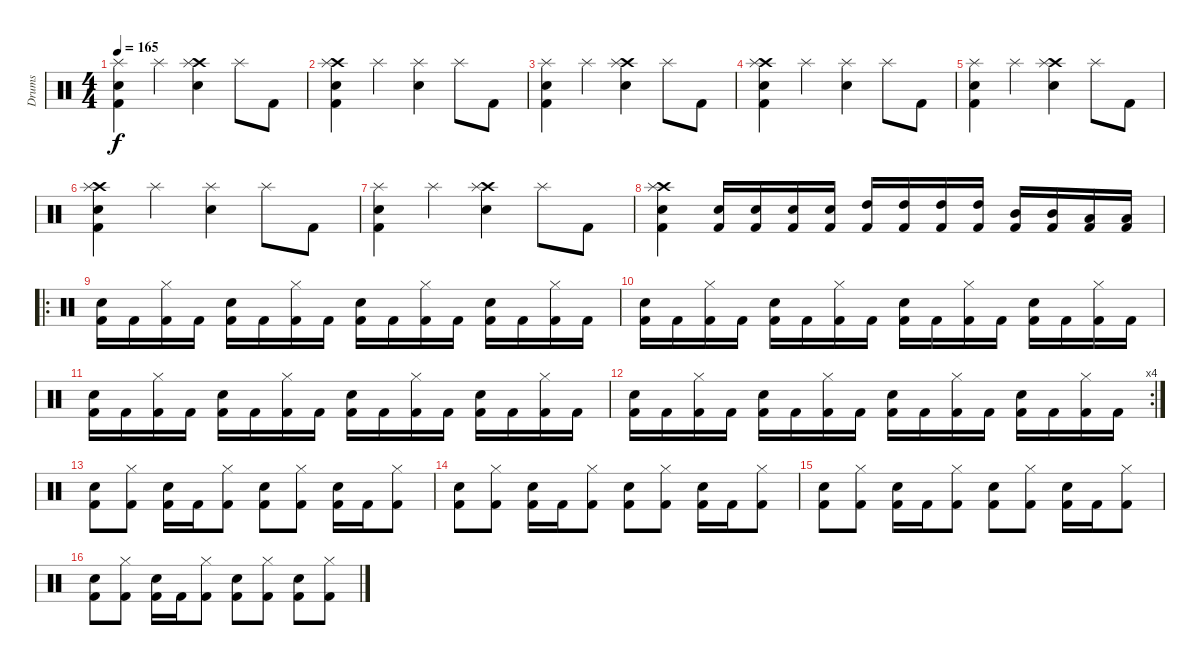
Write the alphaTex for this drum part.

\track ("Drums" "Drums") {instrument percussion}
\staff {score}
\articulation defaults
\ts (4 4)
\tempo 165
\clef neutral
\ks c
("Splash (hit)" "Snare (hit) 2" "Kick (hit) 2").4{dy f} "Splash (hit)".4 ("Crash high (hit)" "Splash (hit)" "Snare (hit) 2").4 "Splash (hit)".8 "Kick (hit) 2".8 |
("Crash high (hit)" "Splash (hit)" "Snare (hit) 2" "Kick (hit) 2").4 "Splash (hit)".4 ("Splash (hit)" "Snare (hit) 2").4 "Splash (hit)".8 "Kick (hit) 2".8 |
("Splash (hit)" "Snare (hit) 2" "Kick (hit) 2").4 "Splash (hit)".4 ("Crash high (hit)" "Splash (hit)" "Snare (hit) 2").4 "Splash (hit)".8 "Kick (hit) 2".8 |
("Crash high (hit)" "Splash (hit)" "Snare (hit) 2" "Kick (hit) 2").4 "Splash (hit)".4 ("Splash (hit)" "Snare (hit) 2").4 "Splash (hit)".8 "Kick (hit) 2".8 |
("Splash (hit)" "Snare (hit) 2" "Kick (hit) 2").4 "Splash (hit)".4 ("Crash high (hit)" "Splash (hit)" "Snare (hit) 2").4 "Splash (hit)".8 "Kick (hit) 2".8 |
("Crash high (hit)" "Splash (hit)" "Snare (hit) 2" "Kick (hit) 2").4 "Splash (hit)".4 ("Splash (hit)" "Snare (hit) 2").4 "Splash (hit)".8 "Kick (hit) 2".8 |
("Splash (hit)" "Snare (hit) 2" "Kick (hit) 2").4 "Splash (hit)".4 ("Crash high (hit)" "Splash (hit)" "Snare (hit) 2").4 "Splash (hit)".8 "Kick (hit) 2".8 |
("Crash high (hit)" "Splash (hit)" "Snare (hit) 2" "Kick (hit) 2").4 ("Snare (hit) 2" "Kick (hit) 2").16 ("Snare (hit) 2" "Kick (hit) 2").16 ("Snare (hit) 2" "Kick (hit) 2").16 ("Snare (hit) 2" "Kick (hit) 2").16 ("High Tom (hit)" "Kick (hit) 2").16 ("High Tom (hit)" "Kick (hit) 2").16 ("High Tom (hit)" "Kick (hit) 2").16 ("High Tom (hit)" "Kick (hit) 2").16 ("Mid Tom (hit)" "Kick (hit) 2").16 ("Mid Tom (hit)" "Kick (hit) 2").16 ("Low Tom (hit)" "Kick (hit) 2").16 ("Low Tom (hit)" "Kick (hit) 2").16 |
\ro
("Snare (hit) 2" "Kick (hit) 2").16 "Kick (hit) 2".16 ("Hi-Hat (closed)" "Kick (hit) 2").16 "Kick (hit) 2".16 ("Snare (hit) 2" "Kick (hit) 2").16 "Kick (hit) 2".16 ("Hi-Hat (closed)" "Kick (hit) 2").16 "Kick (hit) 2".16 ("Snare (hit) 2" "Kick (hit) 2").16 "Kick (hit) 2".16 ("Hi-Hat (closed)" "Kick (hit) 2").16 "Kick (hit) 2".16 ("Snare (hit) 2" "Kick (hit) 2").16 "Kick (hit) 2".16 ("Hi-Hat (closed)" "Kick (hit) 2").16 "Kick (hit) 2".16 |
("Snare (hit) 2" "Kick (hit) 2").16 "Kick (hit) 2".16 ("Hi-Hat (closed)" "Kick (hit) 2").16 "Kick (hit) 2".16 ("Snare (hit) 2" "Kick (hit) 2").16 "Kick (hit) 2".16 ("Hi-Hat (closed)" "Kick (hit) 2").16 "Kick (hit) 2".16 ("Snare (hit) 2" "Kick (hit) 2").16 "Kick (hit) 2".16 ("Hi-Hat (closed)" "Kick (hit) 2").16 "Kick (hit) 2".16 ("Snare (hit) 2" "Kick (hit) 2").16 "Kick (hit) 2".16 ("Hi-Hat (closed)" "Kick (hit) 2").16 "Kick (hit) 2".16 |
("Snare (hit) 2" "Kick (hit) 2").16 "Kick (hit) 2".16 ("Hi-Hat (closed)" "Kick (hit) 2").16 "Kick (hit) 2".16 ("Snare (hit) 2" "Kick (hit) 2").16 "Kick (hit) 2".16 ("Hi-Hat (closed)" "Kick (hit) 2").16 "Kick (hit) 2".16 ("Snare (hit) 2" "Kick (hit) 2").16 "Kick (hit) 2".16 ("Hi-Hat (closed)" "Kick (hit) 2").16 "Kick (hit) 2".16 ("Snare (hit) 2" "Kick (hit) 2").16 "Kick (hit) 2".16 ("Hi-Hat (closed)" "Kick (hit) 2").16 "Kick (hit) 2".16 |
\rc 4
("Snare (hit) 2" "Kick (hit) 2").16 "Kick (hit) 2".16 ("Hi-Hat (closed)" "Kick (hit) 2").16 "Kick (hit) 2".16 ("Snare (hit) 2" "Kick (hit) 2").16 "Kick (hit) 2".16 ("Hi-Hat (closed)" "Kick (hit) 2").16 "Kick (hit) 2".16 ("Snare (hit) 2" "Kick (hit) 2").16 "Kick (hit) 2".16 ("Hi-Hat (closed)" "Kick (hit) 2").16 "Kick (hit) 2".16 ("Snare (hit) 2" "Kick (hit) 2").16 "Kick (hit) 2".16 ("Hi-Hat (closed)" "Kick (hit) 2").16 "Kick (hit) 2".16 |
("Snare (hit) 2" "Kick (hit) 2").8 ("Hi-Hat (closed)" "Kick (hit) 2").8 ("Snare (hit) 2" "Kick (hit) 2").16 "Kick (hit) 2".16 ("Hi-Hat (closed)" "Kick (hit) 2").8 ("Snare (hit) 2" "Kick (hit) 2").8 ("Hi-Hat (closed)" "Kick (hit) 2").8 ("Snare (hit) 2" "Kick (hit) 2").16 "Kick (hit) 2".16 ("Hi-Hat (closed)" "Kick (hit) 2").8 |
("Snare (hit) 2" "Kick (hit) 2").8 ("Hi-Hat (closed)" "Kick (hit) 2").8 ("Snare (hit) 2" "Kick (hit) 2").16 "Kick (hit) 2".16 ("Hi-Hat (closed)" "Kick (hit) 2").8 ("Snare (hit) 2" "Kick (hit) 2").8 ("Hi-Hat (closed)" "Kick (hit) 2").8 ("Snare (hit) 2" "Kick (hit) 2").16 "Kick (hit) 2".16 ("Hi-Hat (closed)" "Kick (hit) 2").8 |
("Snare (hit) 2" "Kick (hit) 2").8 ("Hi-Hat (closed)" "Kick (hit) 2").8 ("Snare (hit) 2" "Kick (hit) 2").16 "Kick (hit) 2".16 ("Hi-Hat (closed)" "Kick (hit) 2").8 ("Snare (hit) 2" "Kick (hit) 2").8 ("Hi-Hat (closed)" "Kick (hit) 2").8 ("Snare (hit) 2" "Kick (hit) 2").16 "Kick (hit) 2".16 ("Hi-Hat (closed)" "Kick (hit) 2").8 |
("Snare (hit) 2" "Kick (hit) 2").8 ("Hi-Hat (closed)" "Kick (hit) 2").8 ("Snare (hit) 2" "Kick (hit) 2").16 "Kick (hit) 2".16 ("Hi-Hat (closed)" "Kick (hit) 2").8 ("Snare (hit) 2" "Kick (hit) 2").8 ("Hi-Hat (closed)" "Kick (hit) 2").8 ("Snare (hit) 2" "Kick (hit) 2").8 ("Hi-Hat (closed)" "Kick (hit) 2").8
